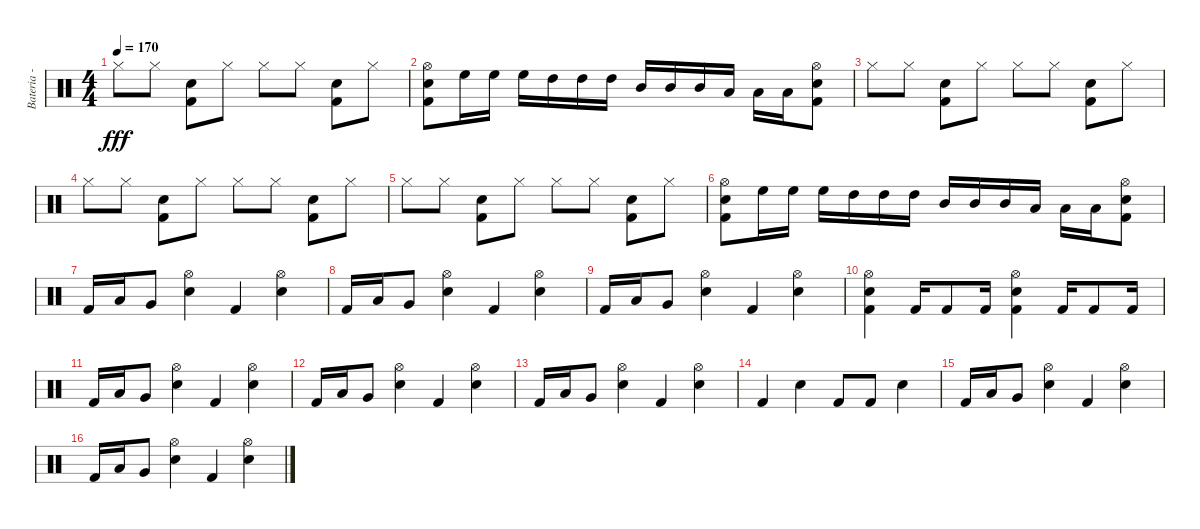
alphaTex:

\track ("Bateria - Larzon" "Bateria - ") {instrument percussion}
\staff {score}
\articulation defaults
\ts (4 4)
\tempo 170
\clef neutral
\ks c "Hi-Hat (closed)".8{dy fff} "Hi-Hat (closed)".8
("Snare (hit) 2" "Kick (hit) 2").8 "Hi-Hat (closed)".8 "Hi-Hat (closed)".8 "Hi-Hat (closed)".8 ("Snare (hit) 2" "Kick (hit) 2").8 "Hi-Hat (closed)".8 |
("Hi-Hat (open)" "Snare (hit) 2" "Kick (hit) 2").8 "High Floor Tom (hit)".16 "High Floor Tom (hit)".16 "High Floor Tom (hit)".16 "High Tom (hit)".16 "High Tom (hit)".16 "High Tom (hit)".16 "Mid Tom (hit)".16 "Mid Tom (hit)".16 "Mid Tom (hit)".16 "Low Tom (hit)".16 "Low Tom (hit)".16 "Low Tom (hit)".16 ("Hi-Hat (open)" "Snare (hit) 2" "Kick (hit) 2").8 |
"Hi-Hat (closed)".8 "Hi-Hat (closed)".8 ("Snare (hit) 2" "Kick (hit) 2").8 "Hi-Hat (closed)".8 "Hi-Hat (closed)".8 "Hi-Hat (closed)".8 ("Snare (hit) 2" "Kick (hit) 2").8 "Hi-Hat (closed)".8 |
"Hi-Hat (closed)".8 "Hi-Hat (closed)".8 ("Snare (hit) 2" "Kick (hit) 2").8 "Hi-Hat (closed)".8 "Hi-Hat (closed)".8 "Hi-Hat (closed)".8 ("Snare (hit) 2" "Kick (hit) 2").8 "Hi-Hat (closed)".8 |
"Hi-Hat (closed)".8 "Hi-Hat (closed)".8 ("Snare (hit) 2" "Kick (hit) 2").8 "Hi-Hat (closed)".8 "Hi-Hat (closed)".8 "Hi-Hat (closed)".8 ("Snare (hit) 2" "Kick (hit) 2").8 "Hi-Hat (closed)".8 |
("Hi-Hat (open)" "Snare (hit) 2" "Kick (hit) 2").8 "High Floor Tom (hit)".16 "High Floor Tom (hit)".16 "High Floor Tom (hit)".16 "High Tom (hit)".16 "High Tom (hit)".16 "High Tom (hit)".16 "Mid Tom (hit)".16 "Mid Tom (hit)".16 "Mid Tom (hit)".16 "Low Tom (hit)".16 "Low Tom (hit)".16 "Low Tom (hit)".16 ("Hi-Hat (open)" "Snare (hit) 2" "Kick (hit) 2").8 |
"Kick (hit) 2".16 "Low Floor Tom (hit)".16 "Very Low Tom (hit)".8 ("Hi-Hat (open)" "Snare (hit) 2").4 "Kick (hit) 2".4 ("Hi-Hat (open)" "Snare (hit) 2").4 |
"Kick (hit) 2".16 "Low Floor Tom (hit)".16 "Very Low Tom (hit)".8 ("Hi-Hat (open)" "Snare (hit) 2").4 "Kick (hit) 2".4 ("Hi-Hat (open)" "Snare (hit) 2").4 |
"Kick (hit) 2".16 "Low Floor Tom (hit)".16 "Very Low Tom (hit)".8 ("Hi-Hat (open)" "Snare (hit) 2").4 "Kick (hit) 2".4 ("Hi-Hat (open)" "Snare (hit) 2").4 |
("Hi-Hat (open)" "Snare (hit) 2" "Kick (hit) 2").4 "Kick (hit) 2".16 "Kick (hit) 2".8 "Kick (hit) 2".16 ("Hi-Hat (open)" "Snare (hit) 2" "Kick (hit) 2").4 "Kick (hit) 2".16 "Kick (hit) 2".8 "Kick (hit) 2".16 |
"Kick (hit) 2".16 "Low Floor Tom (hit)".16 "Very Low Tom (hit)".8 ("Hi-Hat (open)" "Snare (hit) 2").4 "Kick (hit) 2".4 ("Hi-Hat (open)" "Snare (hit) 2").4 |
"Kick (hit) 2".16 "Low Floor Tom (hit)".16 "Very Low Tom (hit)".8 ("Hi-Hat (open)" "Snare (hit) 2").4 "Kick (hit) 2".4 ("Hi-Hat (open)" "Snare (hit) 2").4 |
"Kick (hit) 2".16 "Low Floor Tom (hit)".16 "Very Low Tom (hit)".8 ("Hi-Hat (open)" "Snare (hit) 2").4 "Kick (hit) 2".4 ("Hi-Hat (open)" "Snare (hit) 2").4 |
"Kick (hit) 2".4 "Snare (hit) 2".4 "Kick (hit) 2".8 "Kick (hit) 2".8 "Snare (hit) 2".4 |
"Kick (hit) 2".16 "Low Floor Tom (hit)".16 "Very Low Tom (hit)".8 ("Hi-Hat (open)" "Snare (hit) 2").4 "Kick (hit) 2".4 ("Hi-Hat (open)" "Snare (hit) 2").4 |
"Kick (hit) 2".16 "Low Floor Tom (hit)".16 "Very Low Tom (hit)".8 ("Hi-Hat (open)" "Snare (hit) 2").4 "Kick (hit) 2".4 ("Hi-Hat (open)" "Snare (hit) 2").4
